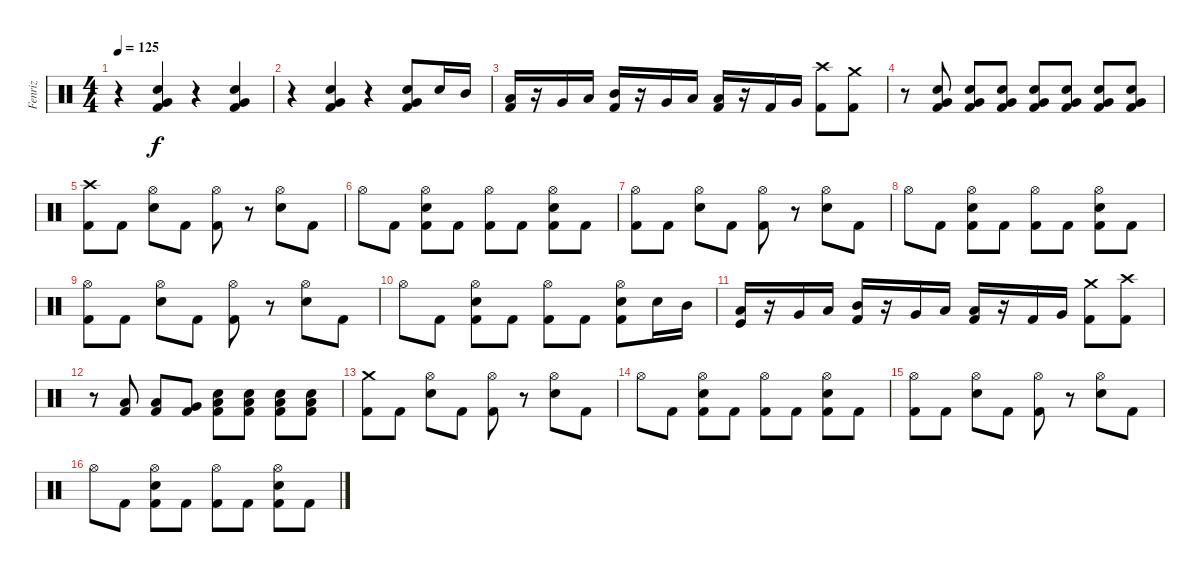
\track ("Fenriz" "Fenriz") {instrument percussion}
\staff {score}
\articulation defaults
\ts (4 4)
\tempo 125
\clef neutral
\ks c
r.4{dy f} ("Very Low Tom (hit)" "Snare (hit) 2" "Kick (hit) 2").4 r.4 ("Very Low Tom (hit)" "Snare (hit) 2" "Kick (hit) 2").4 |
r.4 ("Very Low Tom (hit)" "Snare (hit) 2" "Kick (hit) 2").4 r.4 ("Very Low Tom (hit)" "Snare (hit) 2" "Kick (hit) 2").8 "Electric Snare (hit)".16 "Mid Tom (hit)".16 |
("Low Tom (hit)" "Kick (hit) 2").16 r.16 "Very Low Tom (hit)".16 "Low Tom (hit)".16 ("Mid Tom (hit)" "Kick (hit) 2").16 r.16 "Very Low Tom (hit)".16 "Low Floor Tom (hit)".16 ("Low Tom (hit)" "Kick (hit) 2").16 r.16 "Kick (hit) 2".16 "Very Low Tom (hit)".16 ("Crash high (hit)" "Kick (hit) 2").8 ("Crash medium (hit)" "Kick (hit) 2").8 |
r.8 ("Very Low Tom (hit)" "Snare (hit) 2" "Kick (hit) 2").8 ("Very Low Tom (hit)" "Snare (hit) 2" "Kick (hit) 2").8 ("Very Low Tom (hit)" "Snare (hit) 2" "Kick (hit) 2").8 ("Very Low Tom (hit)" "Snare (hit) 2" "Kick (hit) 2").8 ("Very Low Tom (hit)" "Snare (hit) 2" "Kick (hit) 2").8 ("Very Low Tom (hit)" "Snare (hit) 2" "Kick (hit) 2").8 ("Very Low Tom (hit)" "Snare (hit) 2" "Kick (hit) 2").8 |
("Crash high (hit)" "Kick (hit) 2").8 "Kick (hit) 2".8 ("Hi-Hat (open)" "Electric Snare (hit)").8 "Kick (hit) 2".8 ("Hi-Hat (open)" "Kick (hit) 2").8 r.8 ("Electric Snare (hit)" "Hi-Hat (open)").8 "Kick (hit) 2".8 |
"Hi-Hat (open)".8 "Kick (hit) 2".8 ("Electric Snare (hit)" "Hi-Hat (open)" "Kick (hit) 2").8 "Kick (hit) 2".8 ("Hi-Hat (open)" "Kick (hit) 2").8 "Kick (hit) 2".8 ("Electric Snare (hit)" "Hi-Hat (open)" "Kick (hit) 2").8 "Kick (hit) 2".8 |
("Hi-Hat (open)" "Kick (hit) 2").8 "Kick (hit) 2".8 ("Hi-Hat (open)" "Electric Snare (hit)").8 "Kick (hit) 2".8 ("Hi-Hat (open)" "Kick (hit) 2").8 r.8 ("Electric Snare (hit)" "Hi-Hat (open)").8 "Kick (hit) 2".8 |
"Hi-Hat (open)".8 "Kick (hit) 2".8 ("Electric Snare (hit)" "Hi-Hat (open)" "Kick (hit) 2").8 "Kick (hit) 2".8 ("Hi-Hat (open)" "Kick (hit) 2").8 "Kick (hit) 2".8 ("Electric Snare (hit)" "Hi-Hat (open)" "Kick (hit) 2").8 "Kick (hit) 2".8 |
("Hi-Hat (open)" "Kick (hit) 2").8 "Kick (hit) 2".8 ("Hi-Hat (open)" "Electric Snare (hit)").8 "Kick (hit) 2".8 ("Hi-Hat (open)" "Kick (hit) 2").8 r.8 ("Electric Snare (hit)" "Hi-Hat (open)").8 "Kick (hit) 2".8 |
"Hi-Hat (open)".8 "Kick (hit) 2".8 ("Electric Snare (hit)" "Hi-Hat (open)" "Kick (hit) 2").8 "Kick (hit) 2".8 ("Hi-Hat (open)" "Kick (hit) 2").8 "Kick (hit) 2".8 ("Electric Snare (hit)" "Hi-Hat (open)" "Kick (hit) 2").8 "Snare (hit) 2".16 "Mid Tom (hit)".16 |
("Low Tom (hit)" "Kick (hit)").16 r.16 "Very Low Tom (hit)".16 "Low Tom (hit)".16 ("Mid Tom (hit)" "Kick (hit) 2").16 r.16 "Very Low Tom (hit)".16 "Low Floor Tom (hit)".16 ("Low Tom (hit)" "Kick (hit) 2").16 r.16 "Kick (hit) 2".16 "Very Low Tom (hit)".16 ("Crash medium (hit)" "Kick (hit) 2").8 ("Crash high (hit)" "Kick (hit) 2").8 |
r.8 ("Low Floor Tom (hit)" "Kick (hit) 2").8 ("Low Floor Tom (hit)" "Kick (hit) 2").8 ("Very Low Tom (hit)" "Kick (hit) 2").8 ("Low Tom (hit)" "Snare (hit) 2" "Kick (hit) 2").8 ("Low Tom (hit)" "Snare (hit) 2" "Kick (hit) 2").8 ("Low Tom (hit)" "Snare (hit) 2" "Kick (hit) 2").8 ("Low Tom (hit)" "Snare (hit) 2" "Kick (hit) 2").8 |
("Crash medium (hit)" "Kick (hit) 2").8 "Kick (hit) 2".8 ("Hi-Hat (open)" "Electric Snare (hit)").8 "Kick (hit) 2".8 ("Hi-Hat (open)" "Kick (hit) 2").8 r.8 ("Electric Snare (hit)" "Hi-Hat (open)").8 "Kick (hit) 2".8 |
"Hi-Hat (open)".8 "Kick (hit) 2".8 ("Electric Snare (hit)" "Hi-Hat (open)" "Kick (hit) 2").8 "Kick (hit) 2".8 ("Hi-Hat (open)" "Kick (hit) 2").8 "Kick (hit) 2".8 ("Electric Snare (hit)" "Hi-Hat (open)" "Kick (hit) 2").8 "Kick (hit) 2".8 |
("Hi-Hat (open)" "Kick (hit) 2").8 "Kick (hit) 2".8 ("Hi-Hat (open)" "Electric Snare (hit)").8 "Kick (hit) 2".8 ("Hi-Hat (open)" "Kick (hit) 2").8 r.8 ("Electric Snare (hit)" "Hi-Hat (open)").8 "Kick (hit) 2".8 |
"Hi-Hat (open)".8 "Kick (hit) 2".8 ("Electric Snare (hit)" "Hi-Hat (open)" "Kick (hit) 2").8 "Kick (hit) 2".8 ("Hi-Hat (open)" "Kick (hit) 2").8 "Kick (hit) 2".8 ("Electric Snare (hit)" "Hi-Hat (open)" "Kick (hit) 2").8 "Kick (hit) 2".8
